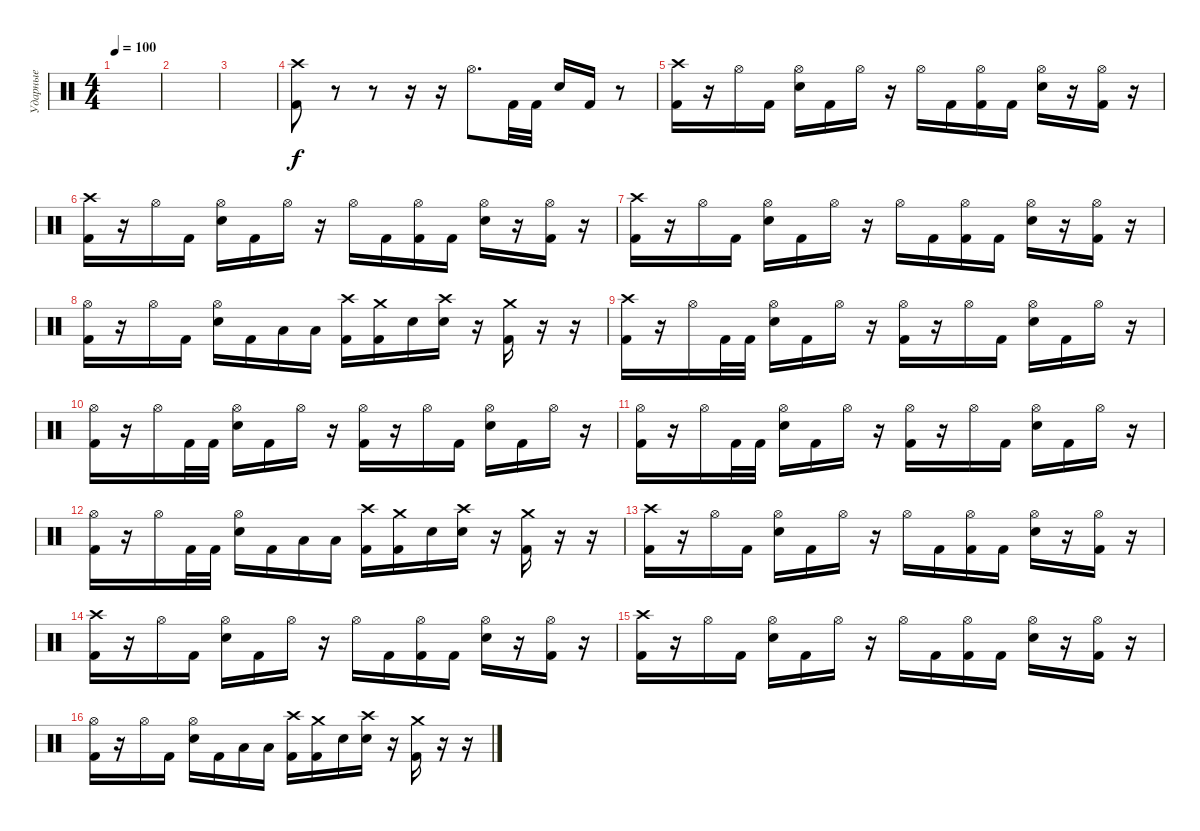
\track ("Ударные" "Ударные") {instrument percussion}
\staff {score}
\articulation defaults
\ts (4 4)
\tempo 100
\clef neutral
\ks c
|
|
|
("Crash high (hit)" "Kick (hit) 2").8 r.8 r.8 r.16 r.16 "Hi-Hat (open)".8{d} "Kick (hit) 2".32 "Kick (hit) 2".32 "Electric Snare (hit)".16 "Kick (hit) 2".16 r.8 |
("Crash high (hit)" "Kick (hit) 2").16 r.16 "Hi-Hat (open)".16 "Kick (hit) 2".16 ("Hi-Hat (open)" "Electric Snare (hit)").16 "Kick (hit) 2".16 "Hi-Hat (open)".16 r.16 "Hi-Hat (open)".16 "Kick (hit) 2".16 ("Hi-Hat (open)" "Kick (hit) 2").16 "Kick (hit) 2".16 ("Hi-Hat (open)" "Electric Snare (hit)").16 r.16 ("Hi-Hat (open)" "Kick (hit) 2").16 r.16 |
("Crash high (hit)" "Kick (hit) 2").16 r.16 "Hi-Hat (open)".16 "Kick (hit) 2".16 ("Hi-Hat (open)" "Electric Snare (hit)").16 "Kick (hit) 2".16 "Hi-Hat (open)".16 r.16 "Hi-Hat (open)".16 "Kick (hit) 2".16 ("Hi-Hat (open)" "Kick (hit) 2").16 "Kick (hit) 2".16 ("Hi-Hat (open)" "Electric Snare (hit)").16 r.16 ("Hi-Hat (open)" "Kick (hit) 2").16 r.16 |
("Crash high (hit)" "Kick (hit) 2").16 r.16 "Hi-Hat (open)".16 "Kick (hit) 2".16 ("Hi-Hat (open)" "Electric Snare (hit)").16 "Kick (hit) 2".16 "Hi-Hat (open)".16 r.16 "Hi-Hat (open)".16 "Kick (hit) 2".16 ("Hi-Hat (open)" "Kick (hit) 2").16 "Kick (hit) 2".16 ("Hi-Hat (open)" "Electric Snare (hit)").16 r.16 ("Hi-Hat (open)" "Kick (hit) 2").16 r.16 |
("Hi-Hat (open)" "Kick (hit) 2").16 r.16 "Hi-Hat (open)".16 "Kick (hit) 2".16 ("Hi-Hat (open)" "Electric Snare (hit)").16 "Kick (hit) 2".16 "Low Floor Tom (hit)".16 "Low Floor Tom (hit)".16 ("Crash high (hit)" "Kick (hit) 2").16 ("Crash medium (hit)" "Kick (hit) 2").16 "Electric Snare (hit)".16 ("Crash high (hit)" "Electric Snare (hit)").16 r.16 ("Crash medium (hit)" "Kick (hit) 2").16 r.16 r.16 |
("Crash high (hit)" "Kick (hit) 2").16 r.16 "Hi-Hat (open)".16 "Kick (hit) 2".32 "Kick (hit) 2".32 ("Hi-Hat (open)" "Electric Snare (hit)").16 "Kick (hit) 2".16 "Hi-Hat (open)".16 r.16 ("Hi-Hat (open)" "Kick (hit) 2").16 r.16 "Hi-Hat (open)".16 "Kick (hit) 2".16 ("Hi-Hat (open)" "Electric Snare (hit)").16 "Kick (hit) 2".16 "Hi-Hat (open)".16 r.16 |
("Hi-Hat (open)" "Kick (hit) 2").16 r.16 "Hi-Hat (open)".16 "Kick (hit) 2".32 "Kick (hit) 2".32 ("Hi-Hat (open)" "Electric Snare (hit)").16 "Kick (hit) 2".16 "Hi-Hat (open)".16 r.16 ("Hi-Hat (open)" "Kick (hit) 2").16 r.16 "Hi-Hat (open)".16 "Kick (hit) 2".16 ("Hi-Hat (open)" "Electric Snare (hit)").16 "Kick (hit) 2".16 "Hi-Hat (open)".16 r.16 |
("Hi-Hat (open)" "Kick (hit) 2").16 r.16 "Hi-Hat (open)".16 "Kick (hit) 2".32 "Kick (hit) 2".32 ("Hi-Hat (open)" "Electric Snare (hit)").16 "Kick (hit) 2".16 "Hi-Hat (open)".16 r.16 ("Hi-Hat (open)" "Kick (hit) 2").16 r.16 "Hi-Hat (open)".16 "Kick (hit) 2".16 ("Hi-Hat (open)" "Electric Snare (hit)").16 "Kick (hit) 2".16 "Hi-Hat (open)".16 r.16 |
("Hi-Hat (open)" "Kick (hit) 2").16 r.16 "Hi-Hat (open)".16 "Kick (hit) 2".32 "Kick (hit) 2".32 ("Hi-Hat (open)" "Electric Snare (hit)").16 "Kick (hit) 2".16 "Low Floor Tom (hit)".16 "Low Floor Tom (hit)".16 ("Crash high (hit)" "Kick (hit) 2").16 ("Crash medium (hit)" "Kick (hit) 2").16 "Electric Snare (hit)".16 ("Crash high (hit)" "Electric Snare (hit)").16 r.16 ("Crash medium (hit)" "Kick (hit) 2").16 r.16 r.16 |
("Crash high (hit)" "Kick (hit) 2").16 r.16 "Hi-Hat (open)".16 "Kick (hit) 2".16 ("Hi-Hat (open)" "Electric Snare (hit)").16 "Kick (hit) 2".16 "Hi-Hat (open)".16 r.16 "Hi-Hat (open)".16 "Kick (hit) 2".16 ("Hi-Hat (open)" "Kick (hit) 2").16 "Kick (hit) 2".16 ("Hi-Hat (open)" "Electric Snare (hit)").16 r.16 ("Hi-Hat (open)" "Kick (hit) 2").16 r.16 |
("Crash high (hit)" "Kick (hit) 2").16 r.16 "Hi-Hat (open)".16 "Kick (hit) 2".16 ("Hi-Hat (open)" "Electric Snare (hit)").16 "Kick (hit) 2".16 "Hi-Hat (open)".16 r.16 "Hi-Hat (open)".16 "Kick (hit) 2".16 ("Hi-Hat (open)" "Kick (hit) 2").16 "Kick (hit) 2".16 ("Hi-Hat (open)" "Electric Snare (hit)").16 r.16 ("Hi-Hat (open)" "Kick (hit) 2").16 r.16 |
("Crash high (hit)" "Kick (hit) 2").16 r.16 "Hi-Hat (open)".16 "Kick (hit) 2".16 ("Hi-Hat (open)" "Electric Snare (hit)").16 "Kick (hit) 2".16 "Hi-Hat (open)".16 r.16 "Hi-Hat (open)".16 "Kick (hit) 2".16 ("Hi-Hat (open)" "Kick (hit) 2").16 "Kick (hit) 2".16 ("Hi-Hat (open)" "Electric Snare (hit)").16 r.16 ("Hi-Hat (open)" "Kick (hit) 2").16 r.16 |
("Hi-Hat (open)" "Kick (hit) 2").16 r.16 "Hi-Hat (open)".16 "Kick (hit) 2".16 ("Hi-Hat (open)" "Electric Snare (hit)").16 "Kick (hit) 2".16 "Low Floor Tom (hit)".16 "Low Floor Tom (hit)".16 ("Crash high (hit)" "Kick (hit) 2").16 ("Crash medium (hit)" "Kick (hit) 2").16 "Electric Snare (hit)".16 ("Crash high (hit)" "Electric Snare (hit)").16 r.16 ("Crash medium (hit)" "Kick (hit) 2").16 r.16 r.16
